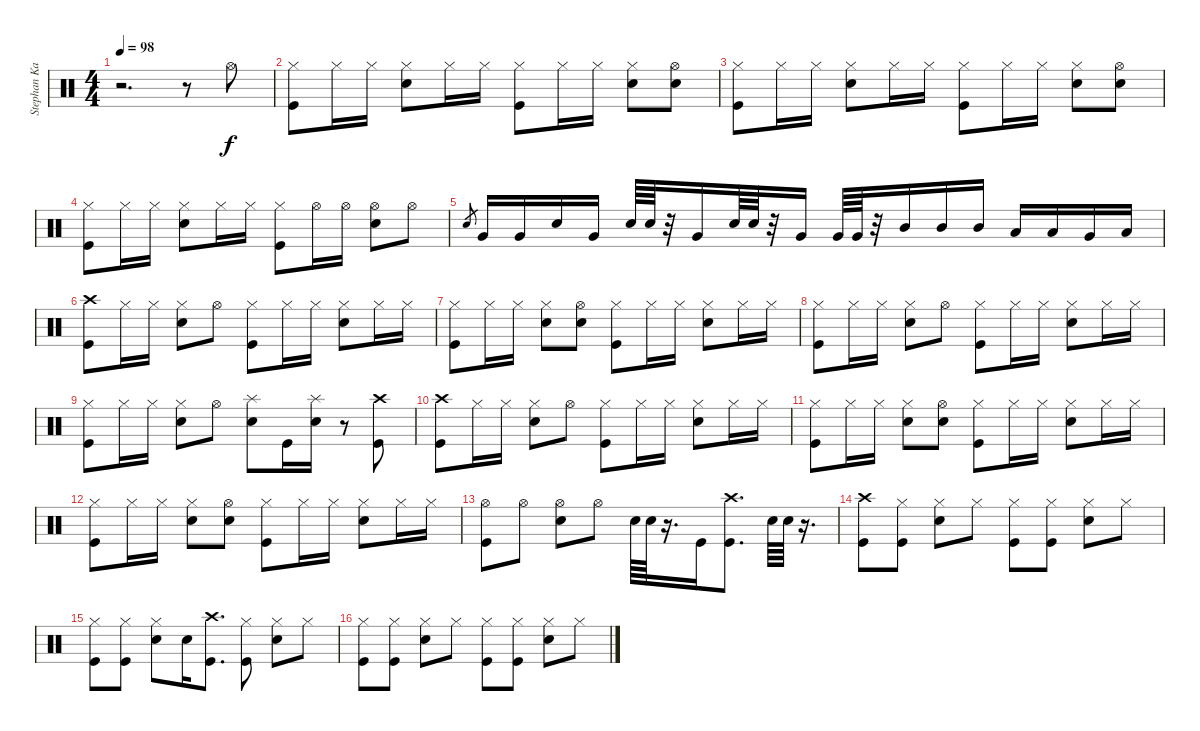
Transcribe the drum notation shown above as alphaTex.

\track ("Stephan Kaufmann" "Stephan Ka") {instrument percussion}
\staff {score}
\articulation defaults
\ts (4 4)
\tempo 98
\clef neutral
\ks c
r.2{d dy f} r.8 "Hi-Hat (open)".8 |
("Hi-Hat (closed)" "Kick (hit)").8 "Hi-Hat (closed)".16 "Hi-Hat (closed)".16 ("Hi-Hat (closed)" "Snare (hit) 2").8 "Hi-Hat (closed)".16 "Hi-Hat (closed)".16 ("Hi-Hat (closed)" "Kick (hit)").8 "Hi-Hat (closed)".16 "Hi-Hat (closed)".16 ("Hi-Hat (closed)" "Snare (hit) 2").8 ("Hi-Hat (open)" "Snare (hit) 2").8 |
("Hi-Hat (closed)" "Kick (hit)").8 "Hi-Hat (closed)".16 "Hi-Hat (closed)".16 ("Hi-Hat (closed)" "Snare (hit) 2").8 "Hi-Hat (closed)".16 "Hi-Hat (closed)".16 ("Hi-Hat (closed)" "Kick (hit)").8 "Hi-Hat (closed)".16 "Hi-Hat (closed)".16 ("Hi-Hat (closed)" "Snare (hit) 2").8 ("Hi-Hat (open)" "Snare (hit) 2").8 |
("Hi-Hat (closed)" "Kick (hit)").8 "Hi-Hat (closed)".16 "Hi-Hat (closed)".16 ("Hi-Hat (closed)" "Snare (hit) 2").8 "Hi-Hat (closed)".16 "Hi-Hat (closed)".16 ("Hi-Hat (closed)" "Kick (hit)").8 "Hi-Hat (open)".16 "Hi-Hat (open)".16 ("Hi-Hat (open)" "Snare (hit) 2").8 "Hi-Hat (open)".8 |
"Snare (hit)".8{gr} "Very Low Tom (hit)".16 "Very Low Tom (hit)".16 "Snare (hit) 2".16 "Very Low Tom (hit)".16 "Snare (hit) 2".64 "Snare (hit) 2".64 r.32 "Very Low Tom (hit)".16 "Snare (hit) 2".64 "Snare (hit) 2".64 r.32 "Very Low Tom (hit)".16 "Very Low Tom (hit)".64 "Very Low Tom (hit)".64 r.32 "Mid Tom (hit)".16 "Mid Tom (hit)".16 "Mid Tom (hit)".16 "Low Tom (hit)".16 "Low Tom (hit)".16 "Very Low Tom (hit)".16 "Low Floor Tom (hit)".16 |
("Crash high (hit)" "Kick (hit)").8 "Hi-Hat (closed)".16 "Hi-Hat (closed)".16 ("Hi-Hat (closed)" "Snare (hit) 2").8 "Hi-Hat (open)".8 ("Hi-Hat (closed)" "Kick (hit)").8 "Hi-Hat (closed)".16 "Hi-Hat (closed)".16 ("Hi-Hat (closed)" "Snare (hit) 2").8 "Hi-Hat (closed)".16 "Hi-Hat (closed)".16 |
("Hi-Hat (closed)" "Kick (hit)").8 "Hi-Hat (closed)".16 "Hi-Hat (closed)".16 ("Hi-Hat (closed)" "Snare (hit) 2").8 ("Hi-Hat (open)" "Snare (hit) 2").8 ("Hi-Hat (closed)" "Kick (hit)").8 "Hi-Hat (closed)".16 "Hi-Hat (closed)".16 ("Hi-Hat (closed)" "Snare (hit) 2").8 "Hi-Hat (closed)".16 "Hi-Hat (closed)".16 |
("Hi-Hat (closed)" "Kick (hit)").8 "Hi-Hat (closed)".16 "Hi-Hat (closed)".16 ("Hi-Hat (closed)" "Snare (hit) 2").8 "Hi-Hat (open)".8 ("Hi-Hat (closed)" "Kick (hit)").8 "Hi-Hat (closed)".16 "Hi-Hat (closed)".16 ("Hi-Hat (closed)" "Snare (hit) 2").8 "Hi-Hat (closed)".16 "Hi-Hat (closed)".16 |
("Hi-Hat (closed)" "Kick (hit)").8 "Hi-Hat (closed)".16 "Hi-Hat (closed)".16 ("Hi-Hat (closed)" "Snare (hit) 2").8 "Hi-Hat (open)".8 ("Splash (hit)" "Snare (hit) 2").8 "Kick (hit)".16 ("Splash (hit)" "Snare (hit) 2").16 r.8 ("Crash high (hit)" "Kick (hit)").8 |
("Crash high (hit)" "Kick (hit)").8 "Hi-Hat (closed)".16 "Hi-Hat (closed)".16 ("Hi-Hat (closed)" "Snare (hit) 2").8 "Hi-Hat (open)".8 ("Hi-Hat (closed)" "Kick (hit)").8 "Hi-Hat (closed)".16 "Hi-Hat (closed)".16 ("Hi-Hat (closed)" "Snare (hit) 2").8 "Hi-Hat (closed)".16 "Hi-Hat (closed)".16 |
("Hi-Hat (closed)" "Kick (hit)").8 "Hi-Hat (closed)".16 "Hi-Hat (closed)".16 ("Hi-Hat (closed)" "Snare (hit) 2").8 ("Hi-Hat (open)" "Snare (hit) 2").8 ("Hi-Hat (closed)" "Kick (hit)").8 "Hi-Hat (closed)".16 "Hi-Hat (closed)".16 ("Hi-Hat (closed)" "Snare (hit) 2").8 "Hi-Hat (closed)".16 "Hi-Hat (closed)".16 |
("Hi-Hat (closed)" "Kick (hit)").8 "Hi-Hat (closed)".16 "Hi-Hat (closed)".16 ("Hi-Hat (closed)" "Snare (hit) 2").8 ("Hi-Hat (open)" "Snare (hit) 2").8 ("Hi-Hat (closed)" "Kick (hit)").8 "Hi-Hat (closed)".16 "Hi-Hat (closed)".16 ("Hi-Hat (closed)" "Snare (hit) 2").8 "Hi-Hat (closed)".16 "Hi-Hat (closed)".16 |
("Hi-Hat (open)" "Kick (hit)").8 "Hi-Hat (open)".8 ("Hi-Hat (open)" "Snare (hit) 2").8 "Hi-Hat (open)".8 "Snare (hit) 2".64 "Snare (hit) 2".64 r.16{d} "Kick (hit)".16 ("Crash high (hit)" "Kick (hit)").8{d} "Snare (hit) 2".64 "Snare (hit) 2".64 r.16{d} |
("Crash high (hit)" "Kick (hit)").8 ("Hi-Hat (closed)" "Kick (hit)").8 ("Hi-Hat (closed)" "Snare (hit) 2").8 "Hi-Hat (closed)".8 ("Hi-Hat (closed)" "Kick (hit)").8 ("Hi-Hat (closed)" "Kick (hit)").8 ("Hi-Hat (closed)" "Snare (hit) 2").8 "Hi-Hat (closed)".8 |
("Hi-Hat (closed)" "Kick (hit)").8 ("Hi-Hat (closed)" "Kick (hit)").8 ("Hi-Hat (closed)" "Snare (hit) 2").8 "Snare (hit) 2".16 ("Crash high (hit)" "Kick (hit)").8{d} ("Hi-Hat (closed)" "Kick (hit)").8 ("Hi-Hat (closed)" "Snare (hit) 2").8 "Hi-Hat (closed)".8 |
("Hi-Hat (closed)" "Kick (hit)").8 ("Hi-Hat (closed)" "Kick (hit)").8 ("Hi-Hat (closed)" "Snare (hit) 2").8 "Hi-Hat (closed)".8 ("Hi-Hat (closed)" "Kick (hit)").8 ("Hi-Hat (closed)" "Kick (hit)").8 ("Hi-Hat (closed)" "Snare (hit) 2").8 "Hi-Hat (closed)".8
